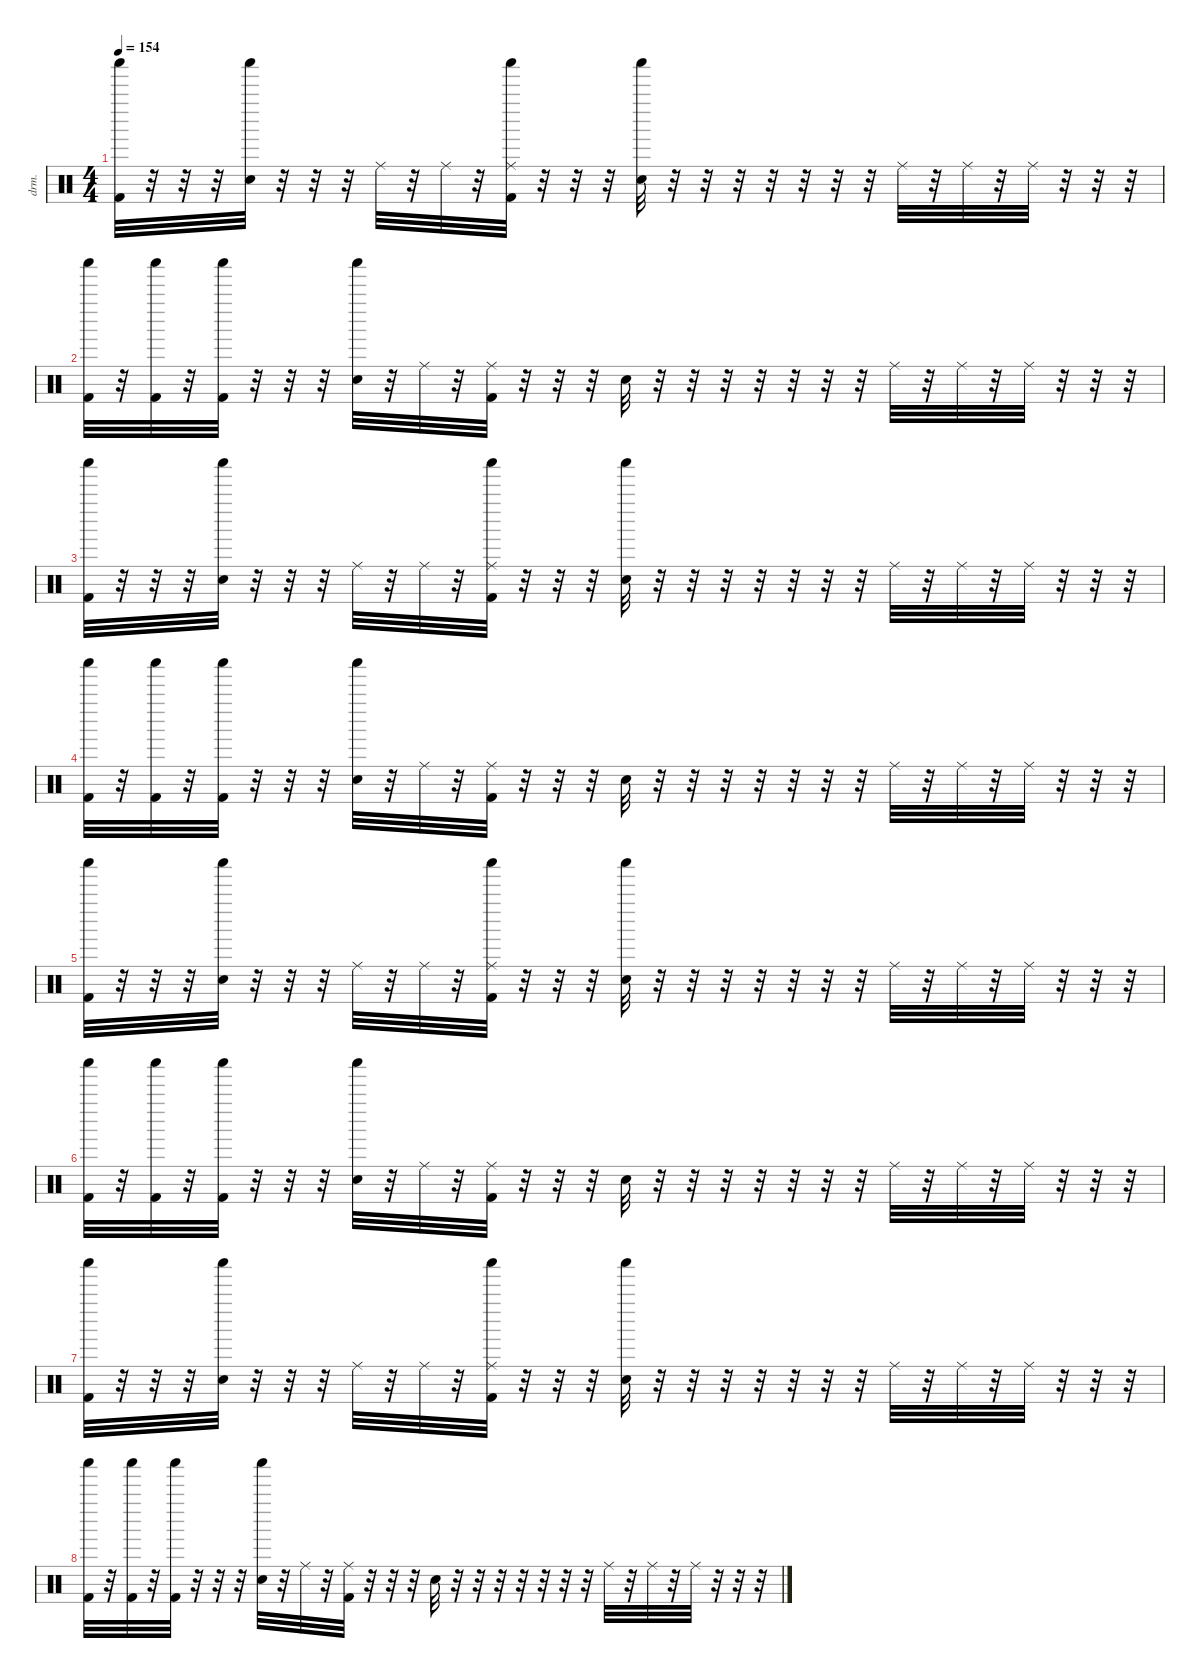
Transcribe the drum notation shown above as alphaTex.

\defaultSystemsLayout 4
\hideDynamics
\bracketExtendMode nobrackets
\otherSystemsTrackNameOrientation horizontal
\track ("Percussion" "drm.") {instrument percussion}
\staff {score}
\articulation defaults
\ts (4 4)
\tempo 154
\clef neutral
\ks c
("Shaker (hit)" "Kick (hit) 2").32{dy f beam Down} r.32{beam Down} r.32{beam Down} r.32{beam Down} ("Shaker (hit)" "Snare (hit) 2").32{beam Down} r.32{beam Down} r.32{beam Down} r.32{beam Down} "Ride (middle)".32{beam Down} r.32{beam Down} "Ride (middle)".32{beam Down} r.32{beam Down} ("Shaker (hit)" "Kick (hit) 2" "Ride (middle)").32{beam Down} r.32{beam Down} r.32{beam Down} r.32{beam Down} ("Shaker (hit)" "Snare (hit) 2").32{beam Down} r.32{beam Down} r.32{beam Down} r.32{beam Down} r.32{beam Down} r.32{beam Down} r.32{beam Down} r.32{beam Down} "Ride (middle)".32{beam Down} r.32{beam Down} "Ride (middle)".32{beam Down} r.32{beam Down} "Ride (middle)".32{beam Down} r.32{beam Down} r.32{beam Down} r.32{beam Down} |
("Shaker (hit)" "Kick (hit) 2").32{beam Down} r.32{beam Down} ("Shaker (hit)" "Kick (hit) 2").32{beam Down} r.32{beam Down} ("Shaker (hit)" "Kick (hit) 2").32{beam Down} r.32{beam Down} r.32{beam Down} r.32{beam Down} ("Shaker (hit)" "Snare (hit) 2").32{beam Down} r.32{beam Down} "Ride (middle)".32{beam Down} r.32{beam Down} ("Kick (hit) 2" "Ride (middle)").32{beam Down} r.32{beam Down} r.32{beam Down} r.32{beam Down} "Snare (hit) 2".32{beam Down} r.32{beam Down} r.32{beam Down} r.32{beam Down} r.32{beam Down} r.32{beam Down} r.32{beam Down} r.32{beam Down} "Ride (middle)".32{beam Down} r.32{beam Down} "Ride (middle)".32{beam Down} r.32{beam Down} "Ride (middle)".32{beam Down} r.32{beam Down} r.32{beam Down} r.32{beam Down} |
("Shaker (hit)" "Kick (hit) 2").32{beam Down} r.32{beam Down} r.32{beam Down} r.32{beam Down} ("Shaker (hit)" "Snare (hit) 2").32{beam Down} r.32{beam Down} r.32{beam Down} r.32{beam Down} "Ride (middle)".32{beam Down} r.32{beam Down} "Ride (middle)".32{beam Down} r.32{beam Down} ("Shaker (hit)" "Kick (hit) 2" "Ride (middle)").32{beam Down} r.32{beam Down} r.32{beam Down} r.32{beam Down} ("Shaker (hit)" "Snare (hit) 2").32{beam Down} r.32{beam Down} r.32{beam Down} r.32{beam Down} r.32{beam Down} r.32{beam Down} r.32{beam Down} r.32{beam Down} "Ride (middle)".32{beam Down} r.32{beam Down} "Ride (middle)".32{beam Down} r.32{beam Down} "Ride (middle)".32{beam Down} r.32{beam Down} r.32{beam Down} r.32{beam Down} |
("Shaker (hit)" "Kick (hit) 2").32{beam Down} r.32{beam Down} ("Shaker (hit)" "Kick (hit) 2").32{beam Down} r.32{beam Down} ("Shaker (hit)" "Kick (hit) 2").32{beam Down} r.32{beam Down} r.32{beam Down} r.32{beam Down} ("Shaker (hit)" "Snare (hit) 2").32{beam Down} r.32{beam Down} "Ride (middle)".32{beam Down} r.32{beam Down} ("Kick (hit) 2" "Ride (middle)").32{beam Down} r.32{beam Down} r.32{beam Down} r.32{beam Down} "Snare (hit) 2".32{beam Down} r.32{beam Down} r.32{beam Down} r.32{beam Down} r.32{beam Down} r.32{beam Down} r.32{beam Down} r.32{beam Down} "Ride (middle)".32{beam Down} r.32{beam Down} "Ride (middle)".32{beam Down} r.32{beam Down} "Ride (middle)".32{beam Down} r.32{beam Down} r.32{beam Down} r.32{beam Down} |
("Shaker (hit)" "Kick (hit) 2").32{beam Down} r.32{beam Down} r.32{beam Down} r.32{beam Down} ("Shaker (hit)" "Snare (hit) 2").32{beam Down} r.32{beam Down} r.32{beam Down} r.32{beam Down} "Ride (middle)".32{beam Down} r.32{beam Down} "Ride (middle)".32{beam Down} r.32{beam Down} ("Shaker (hit)" "Kick (hit) 2" "Ride (middle)").32{beam Down} r.32{beam Down} r.32{beam Down} r.32{beam Down} ("Shaker (hit)" "Snare (hit) 2").32{beam Down} r.32{beam Down} r.32{beam Down} r.32{beam Down} r.32{beam Down} r.32{beam Down} r.32{beam Down} r.32{beam Down} "Ride (middle)".32{beam Down} r.32{beam Down} "Ride (middle)".32{beam Down} r.32{beam Down} "Ride (middle)".32{beam Down} r.32{beam Down} r.32{beam Down} r.32{beam Down} |
("Shaker (hit)" "Kick (hit) 2").32{beam Down} r.32{beam Down} ("Shaker (hit)" "Kick (hit) 2").32{beam Down} r.32{beam Down} ("Shaker (hit)" "Kick (hit) 2").32{beam Down} r.32{beam Down} r.32{beam Down} r.32{beam Down} ("Shaker (hit)" "Snare (hit) 2").32{beam Down} r.32{beam Down} "Ride (middle)".32{beam Down} r.32{beam Down} ("Kick (hit) 2" "Ride (middle)").32{beam Down} r.32{beam Down} r.32{beam Down} r.32{beam Down} "Snare (hit) 2".32{beam Down} r.32{beam Down} r.32{beam Down} r.32{beam Down} r.32{beam Down} r.32{beam Down} r.32{beam Down} r.32{beam Down} "Ride (middle)".32{beam Down} r.32{beam Down} "Ride (middle)".32{beam Down} r.32{beam Down} "Ride (middle)".32{beam Down} r.32{beam Down} r.32{beam Down} r.32{beam Down} |
("Shaker (hit)" "Kick (hit) 2").32{beam Down} r.32{beam Down} r.32{beam Down} r.32{beam Down} ("Shaker (hit)" "Snare (hit) 2").32{beam Down} r.32{beam Down} r.32{beam Down} r.32{beam Down} "Ride (middle)".32{beam Down} r.32{beam Down} "Ride (middle)".32{beam Down} r.32{beam Down} ("Shaker (hit)" "Kick (hit) 2" "Ride (middle)").32{beam Down} r.32{beam Down} r.32{beam Down} r.32{beam Down} ("Shaker (hit)" "Snare (hit) 2").32{beam Down} r.32{beam Down} r.32{beam Down} r.32{beam Down} r.32{beam Down} r.32{beam Down} r.32{beam Down} r.32{beam Down} "Ride (middle)".32{beam Down} r.32{beam Down} "Ride (middle)".32{beam Down} r.32{beam Down} "Ride (middle)".32{beam Down} r.32{beam Down} r.32{beam Down} r.32{beam Down} |
("Shaker (hit)" "Kick (hit) 2").32{beam Down} r.32{beam Down} ("Shaker (hit)" "Kick (hit) 2").32{beam Down} r.32{beam Down} ("Shaker (hit)" "Kick (hit) 2").32{beam Down} r.32{beam Down} r.32{beam Down} r.32{beam Down} ("Shaker (hit)" "Snare (hit) 2").32{beam Down} r.32{beam Down} "Ride (middle)".32{beam Down} r.32{beam Down} ("Kick (hit) 2" "Ride (middle)").32{beam Down} r.32{beam Down} r.32{beam Down} r.32{beam Down} "Snare (hit) 2".32{beam Down} r.32{beam Down} r.32{beam Down} r.32{beam Down} r.32{beam Down} r.32{beam Down} r.32{beam Down} r.32{beam Down} "Ride (middle)".32{beam Down} r.32{beam Down} "Ride (middle)".32{beam Down} r.32{beam Down} "Ride (middle)".32{beam Down} r.32{beam Down} r.32{beam Down} r.32{beam Down}
